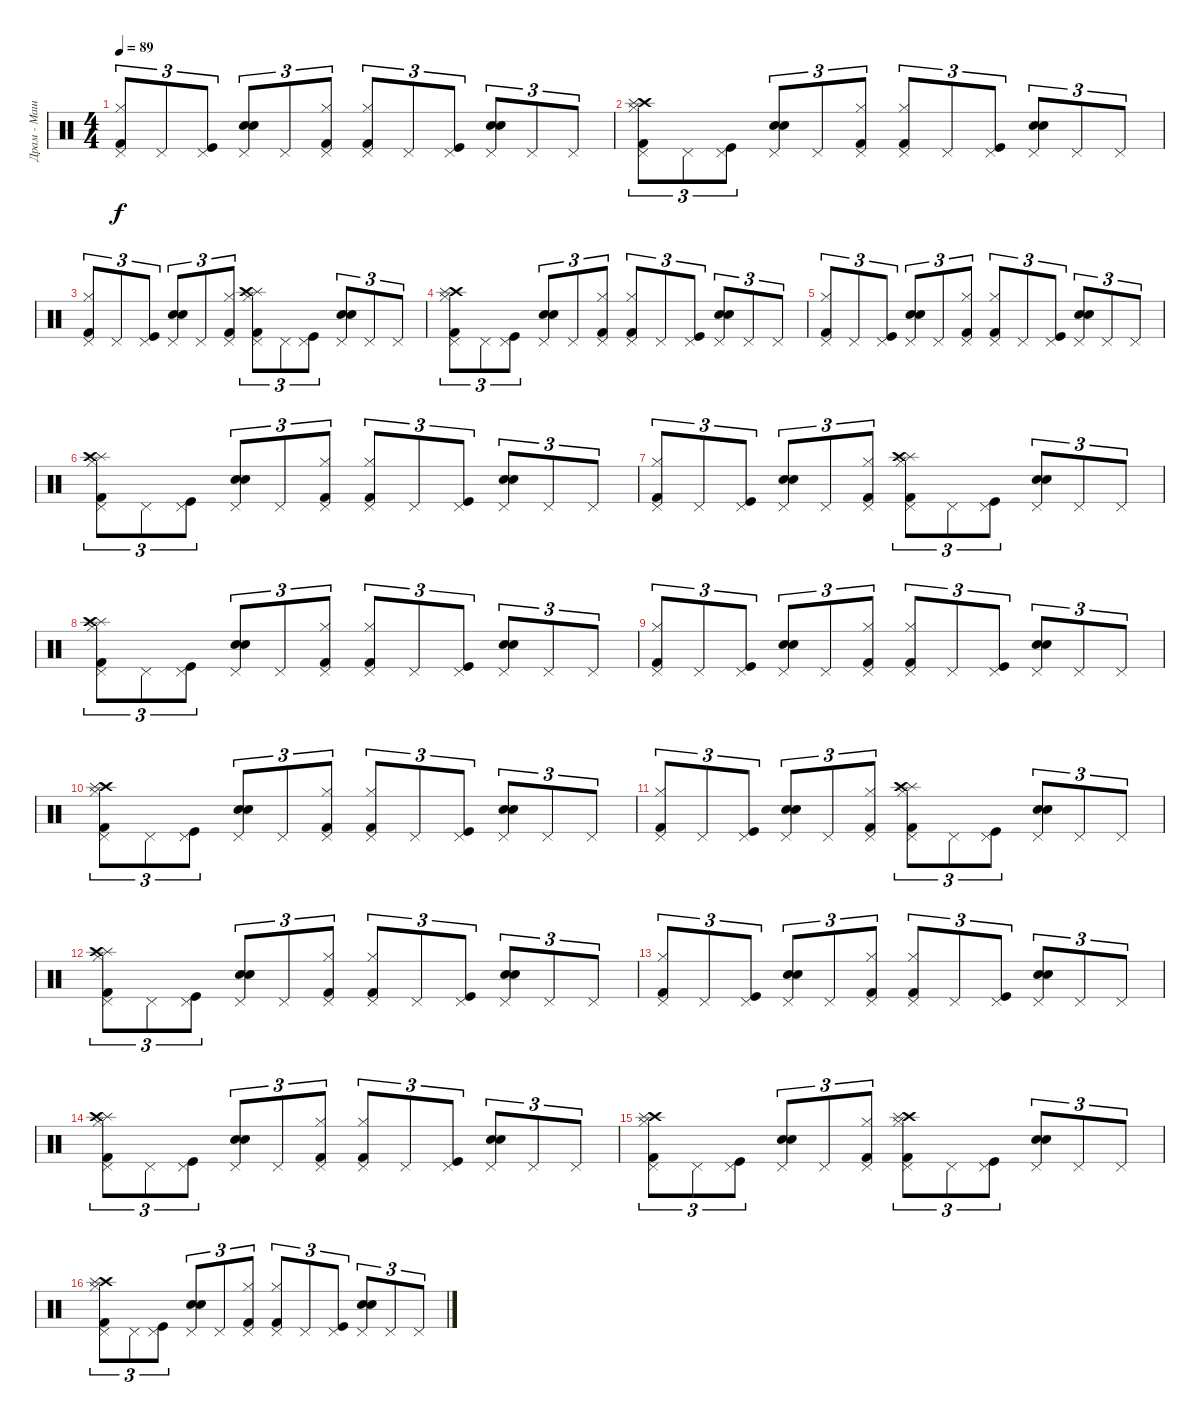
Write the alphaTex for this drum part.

\track ("Драм - Машина" "Драм - Маш") {instrument percussion}
\staff {score}
\articulation defaults
\ts (4 4)
\tempo 89
\clef neutral
\ks c
("Pedal Hi-Hat (hit)" "Hi-Hat (closed)" "Kick (hit) 2").8{tu (3 2) dy f} "Pedal Hi-Hat (hit)".8{tu (3 2)} ("Pedal Hi-Hat (hit)" "Kick (hit)").8{tu (3 2)} ("Electric Snare (hit)" "Snare (hit) 2" "Pedal Hi-Hat (hit)").8{tu (3 2)} "Pedal Hi-Hat (hit)".8{tu (3 2)} ("Hi-Hat (closed)" "Kick (hit) 2" "Pedal Hi-Hat (hit)").8{tu (3 2)} ("Hi-Hat (closed)" "Kick (hit) 2" "Pedal Hi-Hat (hit)").8{tu (3 2)} "Pedal Hi-Hat (hit)".8{tu (3 2)} ("Kick (hit)" "Pedal Hi-Hat (hit)").8{tu (3 2)} ("Pedal Hi-Hat (hit)" "Snare (hit) 2" "Electric Snare (hit)").8{tu (3 2)} "Pedal Hi-Hat (hit)".8{tu (3 2)} "Pedal Hi-Hat (hit)".8{tu (3 2)} |
("Hi-Hat (closed)" "Kick (hit) 2" "Crash high (hit)" "Splash (hit)" "Pedal Hi-Hat (hit)").8{tu (3 2)} "Pedal Hi-Hat (hit)".8{tu (3 2)} ("Pedal Hi-Hat (hit)" "Kick (hit)").8{tu (3 2)} ("Snare (hit) 2" "Pedal Hi-Hat (hit)" "Electric Snare (hit)").8{tu (3 2)} "Pedal Hi-Hat (hit)".8{tu (3 2)} ("Hi-Hat (closed)" "Kick (hit) 2" "Pedal Hi-Hat (hit)").8{tu (3 2)} ("Kick (hit) 2" "Pedal Hi-Hat (hit)" "Hi-Hat (closed)").8{tu (3 2)} "Pedal Hi-Hat (hit)".8{tu (3 2)} ("Kick (hit)" "Pedal Hi-Hat (hit)").8{tu (3 2)} ("Electric Snare (hit)" "Snare (hit) 2" "Pedal Hi-Hat (hit)").8{tu (3 2)} "Pedal Hi-Hat (hit)".8{tu (3 2)} "Pedal Hi-Hat (hit)".8{tu (3 2)} |
("Hi-Hat (closed)" "Kick (hit) 2" "Pedal Hi-Hat (hit)").8{tu (3 2)} "Pedal Hi-Hat (hit)".8{tu (3 2)} ("Pedal Hi-Hat (hit)" "Kick (hit)").8{tu (3 2)} ("Pedal Hi-Hat (hit)" "Snare (hit) 2" "Electric Snare (hit)").8{tu (3 2)} "Pedal Hi-Hat (hit)".8{tu (3 2)} ("Pedal Hi-Hat (hit)" "Hi-Hat (closed)" "Kick (hit) 2").8{tu (3 2)} ("Splash (hit)" "Crash high (hit)" "Hi-Hat (closed)" "Pedal Hi-Hat (hit)" "Kick (hit) 2").8{tu (3 2)} "Pedal Hi-Hat (hit)".8{tu (3 2)} ("Pedal Hi-Hat (hit)" "Kick (hit)").8{tu (3 2)} ("Snare (hit) 2" "Electric Snare (hit)" "Pedal Hi-Hat (hit)").8{tu (3 2)} "Pedal Hi-Hat (hit)".8{tu (3 2)} "Pedal Hi-Hat (hit)".8{tu (3 2)} |
("Crash high (hit)" "Splash (hit)" "Kick (hit) 2" "Hi-Hat (closed)" "Pedal Hi-Hat (hit)").8{tu (3 2)} "Pedal Hi-Hat (hit)".8{tu (3 2)} ("Pedal Hi-Hat (hit)" "Kick (hit)").8{tu (3 2)} ("Snare (hit) 2" "Electric Snare (hit)" "Pedal Hi-Hat (hit)").8{tu (3 2)} "Pedal Hi-Hat (hit)".8{tu (3 2)} ("Kick (hit) 2" "Hi-Hat (closed)" "Pedal Hi-Hat (hit)").8{tu (3 2)} ("Hi-Hat (closed)" "Pedal Hi-Hat (hit)" "Kick (hit) 2").8{tu (3 2)} "Pedal Hi-Hat (hit)".8{tu (3 2)} ("Pedal Hi-Hat (hit)" "Kick (hit)").8{tu (3 2)} ("Electric Snare (hit)" "Pedal Hi-Hat (hit)" "Snare (hit) 2").8{tu (3 2)} "Pedal Hi-Hat (hit)".8{tu (3 2)} "Pedal Hi-Hat (hit)".8{tu (3 2)} |
("Kick (hit) 2" "Pedal Hi-Hat (hit)" "Hi-Hat (closed)").8{tu (3 2)} "Pedal Hi-Hat (hit)".8{tu (3 2)} ("Pedal Hi-Hat (hit)" "Kick (hit)").8{tu (3 2)} ("Snare (hit) 2" "Electric Snare (hit)" "Pedal Hi-Hat (hit)").8{tu (3 2)} "Pedal Hi-Hat (hit)".8{tu (3 2)} ("Kick (hit) 2" "Hi-Hat (closed)" "Pedal Hi-Hat (hit)").8{tu (3 2)} ("Pedal Hi-Hat (hit)" "Hi-Hat (closed)" "Kick (hit) 2").8{tu (3 2)} "Pedal Hi-Hat (hit)".8{tu (3 2)} ("Kick (hit)" "Pedal Hi-Hat (hit)").8{tu (3 2)} ("Snare (hit) 2" "Electric Snare (hit)" "Pedal Hi-Hat (hit)").8{tu (3 2)} "Pedal Hi-Hat (hit)".8{tu (3 2)} "Pedal Hi-Hat (hit)".8{tu (3 2)} |
("Splash (hit)" "Kick (hit) 2" "Pedal Hi-Hat (hit)" "Crash high (hit)" "Hi-Hat (closed)").8{tu (3 2)} "Pedal Hi-Hat (hit)".8{tu (3 2)} ("Pedal Hi-Hat (hit)" "Kick (hit)").8{tu (3 2)} ("Pedal Hi-Hat (hit)" "Snare (hit) 2" "Electric Snare (hit)").8{tu (3 2)} "Pedal Hi-Hat (hit)".8{tu (3 2)} ("Hi-Hat (closed)" "Kick (hit) 2" "Pedal Hi-Hat (hit)").8{tu (3 2)} ("Kick (hit) 2" "Hi-Hat (closed)" "Pedal Hi-Hat (hit)").8{tu (3 2)} "Pedal Hi-Hat (hit)".8{tu (3 2)} ("Kick (hit)" "Pedal Hi-Hat (hit)").8{tu (3 2)} ("Snare (hit) 2" "Pedal Hi-Hat (hit)" "Electric Snare (hit)").8{tu (3 2)} "Pedal Hi-Hat (hit)".8{tu (3 2)} "Pedal Hi-Hat (hit)".8{tu (3 2)} |
("Hi-Hat (closed)" "Pedal Hi-Hat (hit)" "Kick (hit) 2").8{tu (3 2)} "Pedal Hi-Hat (hit)".8{tu (3 2)} ("Kick (hit)" "Pedal Hi-Hat (hit)").8{tu (3 2)} ("Snare (hit) 2" "Electric Snare (hit)" "Pedal Hi-Hat (hit)").8{tu (3 2)} "Pedal Hi-Hat (hit)".8{tu (3 2)} ("Pedal Hi-Hat (hit)" "Kick (hit) 2" "Hi-Hat (closed)").8{tu (3 2)} ("Hi-Hat (closed)" "Kick (hit) 2" "Splash (hit)" "Crash high (hit)" "Pedal Hi-Hat (hit)").8{tu (3 2)} "Pedal Hi-Hat (hit)".8{tu (3 2)} ("Kick (hit)" "Pedal Hi-Hat (hit)").8{tu (3 2)} ("Pedal Hi-Hat (hit)" "Electric Snare (hit)" "Snare (hit) 2").8{tu (3 2)} "Pedal Hi-Hat (hit)".8{tu (3 2)} "Pedal Hi-Hat (hit)".8{tu (3 2)} |
("Splash (hit)" "Crash high (hit)" "Kick (hit) 2" "Hi-Hat (closed)" "Pedal Hi-Hat (hit)").8{tu (3 2)} "Pedal Hi-Hat (hit)".8{tu (3 2)} ("Kick (hit)" "Pedal Hi-Hat (hit)").8{tu (3 2)} ("Snare (hit) 2" "Pedal Hi-Hat (hit)" "Electric Snare (hit)").8{tu (3 2)} "Pedal Hi-Hat (hit)".8{tu (3 2)} ("Hi-Hat (closed)" "Pedal Hi-Hat (hit)" "Kick (hit) 2").8{tu (3 2)} ("Hi-Hat (closed)" "Pedal Hi-Hat (hit)" "Kick (hit) 2").8{tu (3 2)} "Pedal Hi-Hat (hit)".8{tu (3 2)} ("Pedal Hi-Hat (hit)" "Kick (hit)").8{tu (3 2)} ("Snare (hit) 2" "Electric Snare (hit)" "Pedal Hi-Hat (hit)").8{tu (3 2)} "Pedal Hi-Hat (hit)".8{tu (3 2)} "Pedal Hi-Hat (hit)".8{tu (3 2)} |
("Kick (hit) 2" "Hi-Hat (closed)" "Pedal Hi-Hat (hit)").8{tu (3 2)} "Pedal Hi-Hat (hit)".8{tu (3 2)} ("Pedal Hi-Hat (hit)" "Kick (hit)").8{tu (3 2)} ("Electric Snare (hit)" "Snare (hit) 2" "Pedal Hi-Hat (hit)").8{tu (3 2)} "Pedal Hi-Hat (hit)".8{tu (3 2)} ("Hi-Hat (closed)" "Kick (hit) 2" "Pedal Hi-Hat (hit)").8{tu (3 2)} ("Hi-Hat (closed)" "Kick (hit) 2" "Pedal Hi-Hat (hit)").8{tu (3 2)} "Pedal Hi-Hat (hit)".8{tu (3 2)} ("Kick (hit)" "Pedal Hi-Hat (hit)").8{tu (3 2)} ("Electric Snare (hit)" "Snare (hit) 2" "Pedal Hi-Hat (hit)").8{tu (3 2)} "Pedal Hi-Hat (hit)".8{tu (3 2)} "Pedal Hi-Hat (hit)".8{tu (3 2)} |
("Crash high (hit)" "Splash (hit)" "Hi-Hat (closed)" "Pedal Hi-Hat (hit)" "Kick (hit) 2").8{tu (3 2)} "Pedal Hi-Hat (hit)".8{tu (3 2)} ("Pedal Hi-Hat (hit)" "Kick (hit)").8{tu (3 2)} ("Snare (hit) 2" "Pedal Hi-Hat (hit)" "Electric Snare (hit)").8{tu (3 2)} "Pedal Hi-Hat (hit)".8{tu (3 2)} ("Hi-Hat (closed)" "Kick (hit) 2" "Pedal Hi-Hat (hit)").8{tu (3 2)} ("Kick (hit) 2" "Pedal Hi-Hat (hit)" "Hi-Hat (closed)").8{tu (3 2)} "Pedal Hi-Hat (hit)".8{tu (3 2)} ("Kick (hit)" "Pedal Hi-Hat (hit)").8{tu (3 2)} ("Snare (hit) 2" "Electric Snare (hit)" "Pedal Hi-Hat (hit)").8{tu (3 2)} "Pedal Hi-Hat (hit)".8{tu (3 2)} "Pedal Hi-Hat (hit)".8{tu (3 2)} |
("Hi-Hat (closed)" "Pedal Hi-Hat (hit)" "Kick (hit) 2").8{tu (3 2)} "Pedal Hi-Hat (hit)".8{tu (3 2)} ("Pedal Hi-Hat (hit)" "Kick (hit)").8{tu (3 2)} ("Pedal Hi-Hat (hit)" "Snare (hit) 2" "Electric Snare (hit)").8{tu (3 2)} "Pedal Hi-Hat (hit)".8{tu (3 2)} ("Pedal Hi-Hat (hit)" "Hi-Hat (closed)" "Kick (hit) 2").8{tu (3 2)} ("Splash (hit)" "Pedal Hi-Hat (hit)" "Hi-Hat (closed)" "Crash high (hit)" "Kick (hit) 2").8{tu (3 2)} "Pedal Hi-Hat (hit)".8{tu (3 2)} ("Pedal Hi-Hat (hit)" "Kick (hit)").8{tu (3 2)} ("Pedal Hi-Hat (hit)" "Electric Snare (hit)" "Snare (hit) 2").8{tu (3 2)} "Pedal Hi-Hat (hit)".8{tu (3 2)} "Pedal Hi-Hat (hit)".8{tu (3 2)} |
("Kick (hit) 2" "Splash (hit)" "Crash high (hit)" "Pedal Hi-Hat (hit)" "Hi-Hat (closed)").8{tu (3 2)} "Pedal Hi-Hat (hit)".8{tu (3 2)} ("Pedal Hi-Hat (hit)" "Kick (hit)").8{tu (3 2)} ("Snare (hit) 2" "Electric Snare (hit)" "Pedal Hi-Hat (hit)").8{tu (3 2)} "Pedal Hi-Hat (hit)".8{tu (3 2)} ("Kick (hit) 2" "Hi-Hat (closed)" "Pedal Hi-Hat (hit)").8{tu (3 2)} ("Hi-Hat (closed)" "Pedal Hi-Hat (hit)" "Kick (hit) 2").8{tu (3 2)} "Pedal Hi-Hat (hit)".8{tu (3 2)} ("Pedal Hi-Hat (hit)" "Kick (hit)").8{tu (3 2)} ("Pedal Hi-Hat (hit)" "Electric Snare (hit)" "Snare (hit) 2").8{tu (3 2)} "Pedal Hi-Hat (hit)".8{tu (3 2)} "Pedal Hi-Hat (hit)".8{tu (3 2)} |
("Kick (hit) 2" "Hi-Hat (closed)" "Pedal Hi-Hat (hit)").8{tu (3 2)} "Pedal Hi-Hat (hit)".8{tu (3 2)} ("Pedal Hi-Hat (hit)" "Kick (hit)").8{tu (3 2)} ("Snare (hit) 2" "Electric Snare (hit)" "Pedal Hi-Hat (hit)").8{tu (3 2)} "Pedal Hi-Hat (hit)".8{tu (3 2)} ("Kick (hit) 2" "Hi-Hat (closed)" "Pedal Hi-Hat (hit)").8{tu (3 2)} ("Pedal Hi-Hat (hit)" "Hi-Hat (closed)" "Kick (hit) 2").8{tu (3 2)} "Pedal Hi-Hat (hit)".8{tu (3 2)} ("Kick (hit)" "Pedal Hi-Hat (hit)").8{tu (3 2)} ("Electric Snare (hit)" "Snare (hit) 2" "Pedal Hi-Hat (hit)").8{tu (3 2)} "Pedal Hi-Hat (hit)".8{tu (3 2)} "Pedal Hi-Hat (hit)".8{tu (3 2)} |
("Splash (hit)" "Crash high (hit)" "Hi-Hat (closed)" "Kick (hit) 2" "Pedal Hi-Hat (hit)").8{tu (3 2)} "Pedal Hi-Hat (hit)".8{tu (3 2)} ("Pedal Hi-Hat (hit)" "Kick (hit)").8{tu (3 2)} ("Pedal Hi-Hat (hit)" "Snare (hit) 2" "Electric Snare (hit)").8{tu (3 2)} "Pedal Hi-Hat (hit)".8{tu (3 2)} ("Hi-Hat (closed)" "Kick (hit) 2" "Pedal Hi-Hat (hit)").8{tu (3 2)} ("Kick (hit) 2" "Hi-Hat (closed)" "Pedal Hi-Hat (hit)").8{tu (3 2)} "Pedal Hi-Hat (hit)".8{tu (3 2)} ("Kick (hit)" "Pedal Hi-Hat (hit)").8{tu (3 2)} ("Electric Snare (hit)" "Pedal Hi-Hat (hit)" "Snare (hit) 2").8{tu (3 2)} "Pedal Hi-Hat (hit)".8{tu (3 2)} "Pedal Hi-Hat (hit)".8{tu (3 2)} |
("Crash high (hit)" "Splash (hit)" "Pedal Hi-Hat (hit)" "Hi-Hat (closed)" "Kick (hit) 2").8{tu (3 2)} "Pedal Hi-Hat (hit)".8{tu (3 2)} ("Pedal Hi-Hat (hit)" "Kick (hit)").8{tu (3 2)} ("Electric Snare (hit)" "Snare (hit) 2" "Pedal Hi-Hat (hit)").8{tu (3 2)} "Pedal Hi-Hat (hit)".8{tu (3 2)} ("Kick (hit) 2" "Pedal Hi-Hat (hit)" "Hi-Hat (closed)").8{tu (3 2)} ("Crash high (hit)" "Kick (hit) 2" "Hi-Hat (closed)" "Splash (hit)" "Pedal Hi-Hat (hit)").8{tu (3 2)} "Pedal Hi-Hat (hit)".8{tu (3 2)} ("Kick (hit)" "Pedal Hi-Hat (hit)").8{tu (3 2)} ("Pedal Hi-Hat (hit)" "Snare (hit) 2" "Electric Snare (hit)").8{tu (3 2)} "Pedal Hi-Hat (hit)".8{tu (3 2)} "Pedal Hi-Hat (hit)".8{tu (3 2)} |
("Hi-Hat (closed)" "Kick (hit) 2" "Crash high (hit)" "Splash (hit)" "Pedal Hi-Hat (hit)").8{tu (3 2)} "Pedal Hi-Hat (hit)".8{tu (3 2)} ("Pedal Hi-Hat (hit)" "Kick (hit)").8{tu (3 2)} ("Pedal Hi-Hat (hit)" "Snare (hit) 2" "Electric Snare (hit)").8{tu (3 2)} "Pedal Hi-Hat (hit)".8{tu (3 2)} ("Pedal Hi-Hat (hit)" "Hi-Hat (closed)" "Kick (hit) 2").8{tu (3 2)} ("Hi-Hat (closed)" "Kick (hit) 2" "Pedal Hi-Hat (hit)").8{tu (3 2)} "Pedal Hi-Hat (hit)".8{tu (3 2)} ("Pedal Hi-Hat (hit)" "Kick (hit)").8{tu (3 2)} ("Pedal Hi-Hat (hit)" "Snare (hit) 2" "Electric Snare (hit)").8{tu (3 2)} "Pedal Hi-Hat (hit)".8{tu (3 2)} "Pedal Hi-Hat (hit)".8{tu (3 2)}
